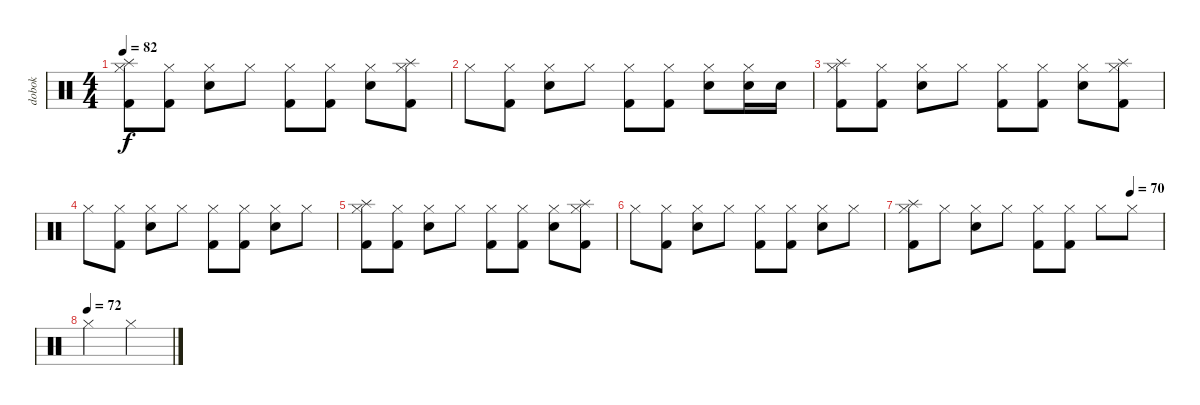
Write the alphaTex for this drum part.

\track ("dobok" "dobok") {instrument percussion}
\staff {score}
\articulation defaults
\ts (4 4)
\tempo 82
\clef neutral
\ks c
("Splash (hit)" "Hi-Hat (closed)" "Kick (hit) 2").8{dy f} ("Hi-Hat (closed)" "Kick (hit) 2").8 ("Hi-Hat (closed)" "Snare (hit) 2").8 "Hi-Hat (closed)".8 ("Hi-Hat (closed)" "Kick (hit) 2").8 ("Hi-Hat (closed)" "Kick (hit) 2").8 ("Hi-Hat (closed)" "Snare (hit) 2").8 ("Splash (hit)" "Hi-Hat (closed)" "Kick (hit) 2").8 |
"Hi-Hat (closed)".8 ("Hi-Hat (closed)" "Kick (hit) 2").8 ("Hi-Hat (closed)" "Snare (hit) 2").8 "Hi-Hat (closed)".8 ("Hi-Hat (closed)" "Kick (hit) 2").8 ("Hi-Hat (closed)" "Kick (hit) 2").8 ("Hi-Hat (closed)" "Snare (hit) 2").8 ("Hi-Hat (closed)" "Snare (hit) 2").16 "Snare (hit) 2".16 |
("Splash (hit)" "Hi-Hat (closed)" "Kick (hit) 2").8 ("Hi-Hat (closed)" "Kick (hit) 2").8 ("Hi-Hat (closed)" "Snare (hit) 2").8 "Hi-Hat (closed)".8 ("Hi-Hat (closed)" "Kick (hit) 2").8 ("Hi-Hat (closed)" "Kick (hit) 2").8 ("Hi-Hat (closed)" "Snare (hit) 2").8 ("Splash (hit)" "Hi-Hat (closed)" "Kick (hit) 2").8 |
"Hi-Hat (closed)".8 ("Hi-Hat (closed)" "Kick (hit) 2").8 ("Hi-Hat (closed)" "Snare (hit) 2").8 "Hi-Hat (closed)".8 ("Hi-Hat (closed)" "Kick (hit) 2").8 ("Hi-Hat (closed)" "Kick (hit) 2").8 ("Hi-Hat (closed)" "Snare (hit) 2").8 "Hi-Hat (closed)".8 |
("Splash (hit)" "Hi-Hat (closed)" "Kick (hit) 2").8 ("Hi-Hat (closed)" "Kick (hit) 2").8 ("Hi-Hat (closed)" "Snare (hit) 2").8 "Hi-Hat (closed)".8 ("Hi-Hat (closed)" "Kick (hit) 2").8 ("Hi-Hat (closed)" "Kick (hit) 2").8 ("Hi-Hat (closed)" "Snare (hit) 2").8 ("Splash (hit)" "Hi-Hat (closed)" "Kick (hit) 2").8 |
"Hi-Hat (closed)".8 ("Hi-Hat (closed)" "Kick (hit) 2").8 ("Hi-Hat (closed)" "Snare (hit) 2").8 "Hi-Hat (closed)".8 ("Hi-Hat (closed)" "Kick (hit) 2").8 ("Hi-Hat (closed)" "Kick (hit) 2").8 ("Hi-Hat (closed)" "Snare (hit) 2").8 "Hi-Hat (closed)".8 |
\tempo (70 0.875)
("Splash (hit)" "Hi-Hat (closed)" "Kick (hit) 2").8 "Hi-Hat (closed)".8 ("Hi-Hat (closed)" "Snare (hit) 2").8 "Hi-Hat (closed)".8 ("Hi-Hat (closed)" "Kick (hit) 2").8 ("Hi-Hat (closed)" "Kick (hit) 2").8 "Hi-Hat (closed)".8 "Hi-Hat (closed)".8 |
\tempo (72)
"Hi-Hat (closed)".2 "Hi-Hat (closed)".2
